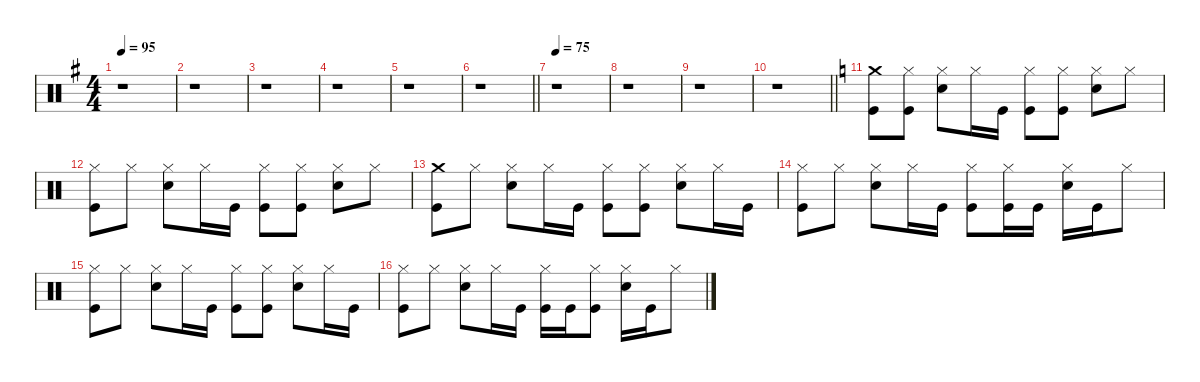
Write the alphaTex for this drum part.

\defaultSystemsLayout 4
\hideDynamics
\bracketExtendMode nobrackets
\singleTrackTrackNamePolicy hidden
\multiTrackTrackNamePolicy hidden
\otherSystemsTrackNameOrientation horizontal
\track ("John Bonham (Bateria)" "drm.") {instrument percussion}
\staff {score}
\articulation defaults
\ts (4 4)
\tempo 95
\clef neutral
\ks g
r.1{dy fff beam Down} |
r.1{beam Down} |
r.1{beam Down} |
r.1{beam Down} |
r.1{beam Down} |
\barLineRight lightlight
r.1{beam Down} |
\tempo 75
r.1{beam Down} |
r.1{beam Down} |
r.1{beam Down} |
\barLineRight lightlight
r.1{beam Down} |
\ks c
("Crash medium (hit)" "Kick (hit)").8{beam Down} ("Hi-Hat (closed)" "Kick (hit)").8{beam Down} ("Hi-Hat (closed)" "Snare (hit) 2").8{beam Down} "Hi-Hat (closed)".16{beam Down} "Kick (hit)".16{beam Down} ("Hi-Hat (closed)" "Kick (hit)").8{beam Down} ("Hi-Hat (closed)" "Kick (hit)").8{beam Down} ("Hi-Hat (closed)" "Snare (hit) 2").8{beam Down} "Hi-Hat (closed)".8{beam Down} |
("Hi-Hat (closed)" "Kick (hit)").8{beam Down} "Hi-Hat (closed)".8{beam Down} ("Hi-Hat (closed)" "Snare (hit) 2").8{beam Down} "Hi-Hat (closed)".16{beam Down} "Kick (hit)".16{beam Down} ("Hi-Hat (closed)" "Kick (hit)").8{beam Down} ("Hi-Hat (closed)" "Kick (hit)").8{beam Down} ("Hi-Hat (closed)" "Snare (hit) 2").8{beam Down} "Hi-Hat (closed)".8{beam Down} |
("Crash medium (hit)" "Kick (hit)").8{beam Down} "Hi-Hat (closed)".8{beam Down} ("Hi-Hat (closed)" "Snare (hit) 2").8{beam Down} "Hi-Hat (closed)".16{beam Down} "Kick (hit)".16{beam Down} ("Hi-Hat (closed)" "Kick (hit)").8{beam Down} ("Hi-Hat (closed)" "Kick (hit)").8{beam Down} ("Hi-Hat (closed)" "Snare (hit) 2").8{beam Down} "Hi-Hat (closed)".16{beam Down} "Kick (hit)".16{beam Down} |
("Hi-Hat (closed)" "Kick (hit)").8{beam Down} "Hi-Hat (closed)".8{beam Down} ("Hi-Hat (closed)" "Snare (hit) 2").8{beam Down} "Hi-Hat (closed)".16{beam Down} "Kick (hit)".16{beam Down} ("Hi-Hat (closed)" "Kick (hit)").8{beam Down} ("Hi-Hat (closed)" "Kick (hit)").16{beam Down} "Kick (hit)".16{beam Down} ("Hi-Hat (closed)" "Snare (hit) 2").16{beam Down} "Kick (hit)".16{beam Down} "Hi-Hat (closed)".8{beam Down} |
("Hi-Hat (closed)" "Kick (hit)").8{beam Down} "Hi-Hat (closed)".8{beam Down} ("Hi-Hat (closed)" "Snare (hit) 2").8{beam Down} "Hi-Hat (closed)".16{beam Down} "Kick (hit)".16{beam Down} ("Hi-Hat (closed)" "Kick (hit)").8{beam Down} ("Hi-Hat (closed)" "Kick (hit)").8{beam Down} ("Hi-Hat (closed)" "Snare (hit) 2").8{beam Down} "Hi-Hat (closed)".16{beam Down} "Kick (hit)".16{beam Down} |
("Hi-Hat (closed)" "Kick (hit)").8{beam Down} "Hi-Hat (closed)".8{beam Down} ("Hi-Hat (closed)" "Snare (hit) 2").8{beam Down} "Hi-Hat (closed)".16{beam Down} "Kick (hit)".16{beam Down} ("Hi-Hat (closed)" "Kick (hit)").16{beam Down} "Kick (hit)".16{beam Down} ("Hi-Hat (closed)" "Kick (hit)").8{beam Down} ("Hi-Hat (closed)" "Snare (hit) 2").16{beam Down} "Kick (hit)".16{beam Down} "Hi-Hat (closed)".8{beam Down}
